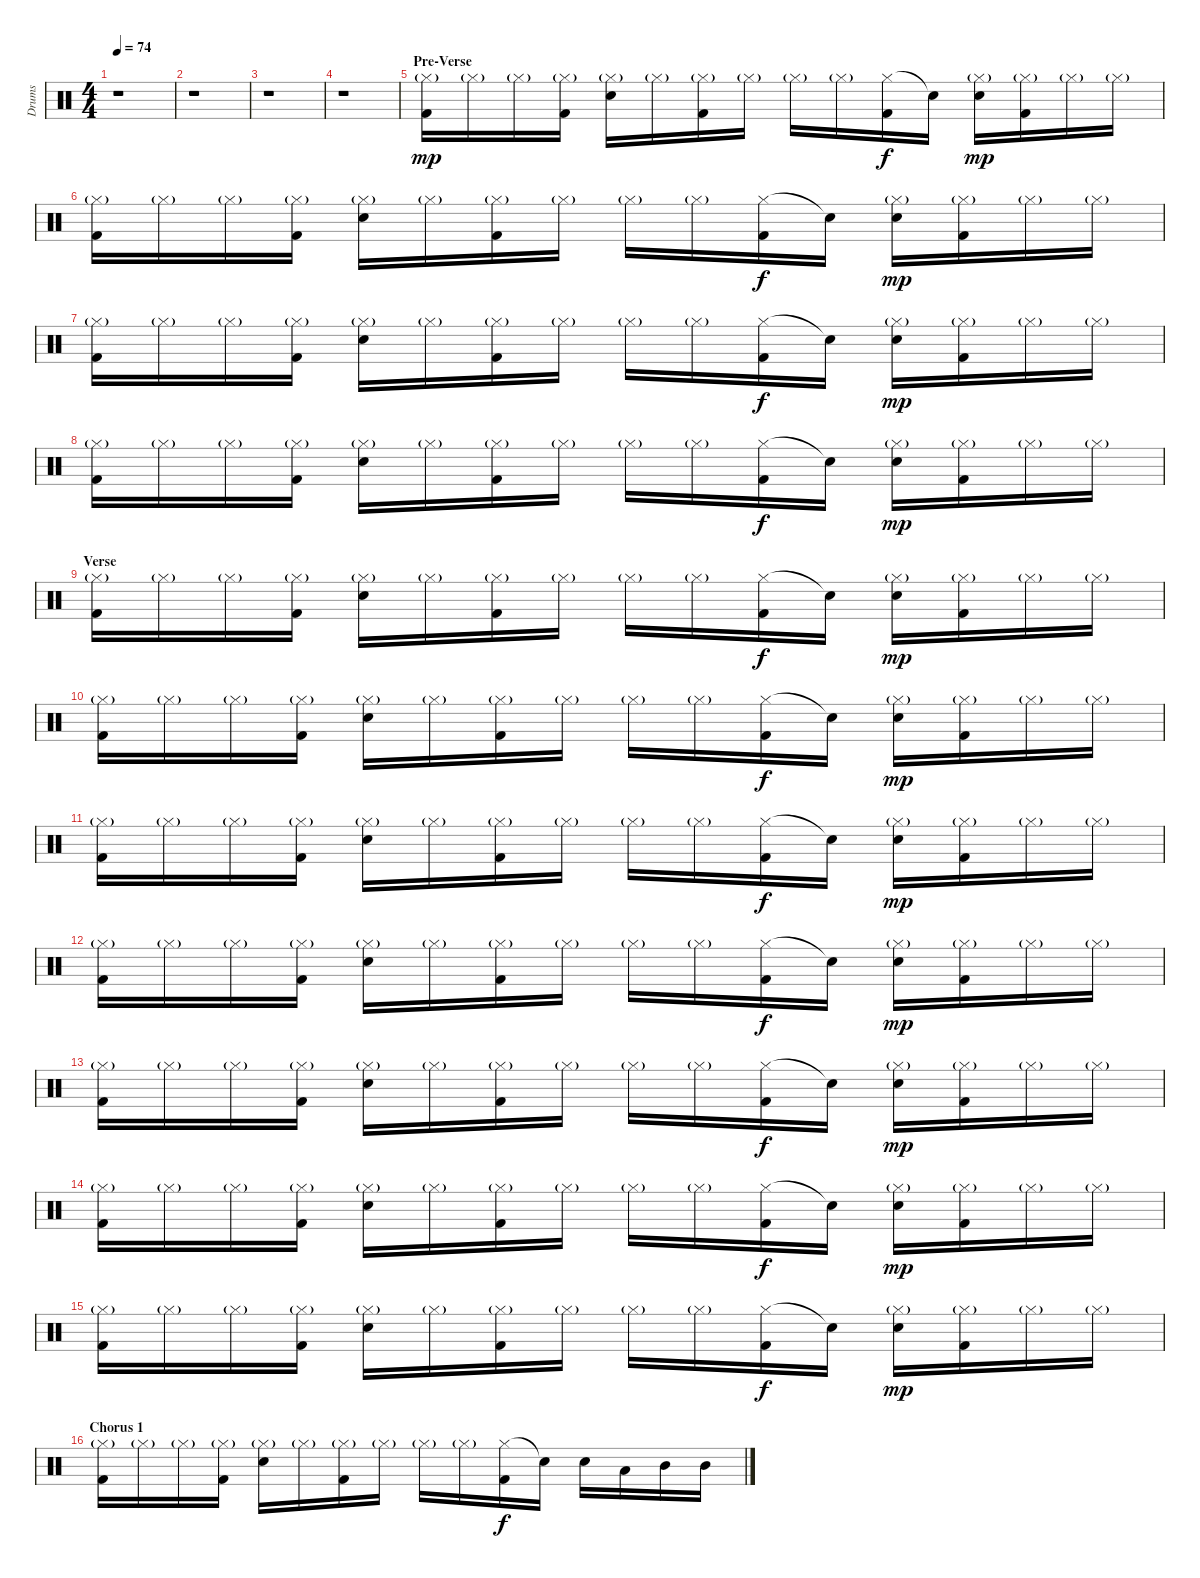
\track ("Drums" "Drums") {instrument percussion}
\staff {score}
\articulation defaults
\ts (4 4)
\tempo 74
\clef neutral
\ks c
r.1{dy mp} |
r.1 |
r.1 |
r.1 |
\section ("" "Pre-Verse")
("Hi-Hat (closed)"{g} "Kick (hit) 2").16 "Hi-Hat (closed)"{g}.16 "Hi-Hat (closed)"{g}.16 ("Hi-Hat (closed)"{g} "Kick (hit) 2").16 ("Hi-Hat (closed)"{g} "Electric Snare (hit)").16 "Hi-Hat (closed)"{g}.16 ("Hi-Hat (closed)"{g} "Kick (hit) 2").16 "Hi-Hat (closed)"{g}.16 "Hi-Hat (closed)"{g}.16 "Hi-Hat (closed)"{g}.16 ("Hi-Hat (closed)" "Kick (hit) 2").16{dy f} "Snare (hit)"{t}.16 ("Hi-Hat (closed)"{g} "Electric Snare (hit)").16{dy mp} ("Hi-Hat (closed)"{g} "Kick (hit) 2").16 "Hi-Hat (closed)"{g}.16 "Hi-Hat (closed)"{g}.16 |
("Hi-Hat (closed)"{g} "Kick (hit) 2").16 "Hi-Hat (closed)"{g}.16 "Hi-Hat (closed)"{g}.16 ("Hi-Hat (closed)"{g} "Kick (hit) 2").16 ("Hi-Hat (closed)"{g} "Electric Snare (hit)").16 "Hi-Hat (closed)"{g}.16 ("Hi-Hat (closed)"{g} "Kick (hit) 2").16 "Hi-Hat (closed)"{g}.16 "Hi-Hat (closed)"{g}.16 "Hi-Hat (closed)"{g}.16 ("Hi-Hat (closed)" "Kick (hit) 2").16{dy f} "Snare (hit)"{t}.16 ("Hi-Hat (closed)"{g} "Electric Snare (hit)").16{dy mp} ("Hi-Hat (closed)"{g} "Kick (hit) 2").16 "Hi-Hat (closed)"{g}.16 "Hi-Hat (closed)"{g}.16 |
("Hi-Hat (closed)"{g} "Kick (hit) 2").16 "Hi-Hat (closed)"{g}.16 "Hi-Hat (closed)"{g}.16 ("Hi-Hat (closed)"{g} "Kick (hit) 2").16 ("Hi-Hat (closed)"{g} "Electric Snare (hit)").16 "Hi-Hat (closed)"{g}.16 ("Hi-Hat (closed)"{g} "Kick (hit) 2").16 "Hi-Hat (closed)"{g}.16 "Hi-Hat (closed)"{g}.16 "Hi-Hat (closed)"{g}.16 ("Hi-Hat (closed)" "Kick (hit) 2").16{dy f} "Snare (hit)"{t}.16 ("Hi-Hat (closed)"{g} "Electric Snare (hit)").16{dy mp} ("Hi-Hat (closed)"{g} "Kick (hit) 2").16 "Hi-Hat (closed)"{g}.16 "Hi-Hat (closed)"{g}.16 |
("Hi-Hat (closed)"{g} "Kick (hit) 2").16 "Hi-Hat (closed)"{g}.16 "Hi-Hat (closed)"{g}.16 ("Hi-Hat (closed)"{g} "Kick (hit) 2").16 ("Hi-Hat (closed)"{g} "Electric Snare (hit)").16 "Hi-Hat (closed)"{g}.16 ("Hi-Hat (closed)"{g} "Kick (hit) 2").16 "Hi-Hat (closed)"{g}.16 "Hi-Hat (closed)"{g}.16 "Hi-Hat (closed)"{g}.16 ("Hi-Hat (closed)" "Kick (hit) 2").16{dy f} "Snare (hit)"{t}.16 ("Hi-Hat (closed)"{g} "Electric Snare (hit)").16{dy mp} ("Hi-Hat (closed)"{g} "Kick (hit) 2").16 "Hi-Hat (closed)"{g}.16 "Hi-Hat (closed)"{g}.16 |
\section ("" "Verse")
("Hi-Hat (closed)"{g} "Kick (hit) 2").16 "Hi-Hat (closed)"{g}.16 "Hi-Hat (closed)"{g}.16 ("Hi-Hat (closed)"{g} "Kick (hit) 2").16 ("Hi-Hat (closed)"{g} "Electric Snare (hit)").16 "Hi-Hat (closed)"{g}.16 ("Hi-Hat (closed)"{g} "Kick (hit) 2").16 "Hi-Hat (closed)"{g}.16 "Hi-Hat (closed)"{g}.16 "Hi-Hat (closed)"{g}.16 ("Hi-Hat (closed)" "Kick (hit) 2").16{dy f} "Snare (hit)"{t}.16 ("Hi-Hat (closed)"{g} "Electric Snare (hit)").16{dy mp} ("Hi-Hat (closed)"{g} "Kick (hit) 2").16 "Hi-Hat (closed)"{g}.16 "Hi-Hat (closed)"{g}.16 |
("Hi-Hat (closed)"{g} "Kick (hit) 2").16 "Hi-Hat (closed)"{g}.16 "Hi-Hat (closed)"{g}.16 ("Hi-Hat (closed)"{g} "Kick (hit) 2").16 ("Hi-Hat (closed)"{g} "Electric Snare (hit)").16 "Hi-Hat (closed)"{g}.16 ("Hi-Hat (closed)"{g} "Kick (hit) 2").16 "Hi-Hat (closed)"{g}.16 "Hi-Hat (closed)"{g}.16 "Hi-Hat (closed)"{g}.16 ("Hi-Hat (closed)" "Kick (hit) 2").16{dy f} "Snare (hit)"{t}.16 ("Hi-Hat (closed)"{g} "Electric Snare (hit)").16{dy mp} ("Hi-Hat (closed)"{g} "Kick (hit) 2").16 "Hi-Hat (closed)"{g}.16 "Hi-Hat (closed)"{g}.16 |
("Hi-Hat (closed)"{g} "Kick (hit) 2").16 "Hi-Hat (closed)"{g}.16 "Hi-Hat (closed)"{g}.16 ("Hi-Hat (closed)"{g} "Kick (hit) 2").16 ("Hi-Hat (closed)"{g} "Electric Snare (hit)").16 "Hi-Hat (closed)"{g}.16 ("Hi-Hat (closed)"{g} "Kick (hit) 2").16 "Hi-Hat (closed)"{g}.16 "Hi-Hat (closed)"{g}.16 "Hi-Hat (closed)"{g}.16 ("Hi-Hat (closed)" "Kick (hit) 2").16{dy f} "Snare (hit)"{t}.16 ("Hi-Hat (closed)"{g} "Electric Snare (hit)").16{dy mp} ("Hi-Hat (closed)"{g} "Kick (hit) 2").16 "Hi-Hat (closed)"{g}.16 "Hi-Hat (closed)"{g}.16 |
("Hi-Hat (closed)"{g} "Kick (hit) 2").16 "Hi-Hat (closed)"{g}.16 "Hi-Hat (closed)"{g}.16 ("Hi-Hat (closed)"{g} "Kick (hit) 2").16 ("Hi-Hat (closed)"{g} "Electric Snare (hit)").16 "Hi-Hat (closed)"{g}.16 ("Hi-Hat (closed)"{g} "Kick (hit) 2").16 "Hi-Hat (closed)"{g}.16 "Hi-Hat (closed)"{g}.16 "Hi-Hat (closed)"{g}.16 ("Hi-Hat (closed)" "Kick (hit) 2").16{dy f} "Snare (hit)"{t}.16 ("Hi-Hat (closed)"{g} "Electric Snare (hit)").16{dy mp} ("Hi-Hat (closed)"{g} "Kick (hit) 2").16 "Hi-Hat (closed)"{g}.16 "Hi-Hat (closed)"{g}.16 |
("Hi-Hat (closed)"{g} "Kick (hit) 2").16 "Hi-Hat (closed)"{g}.16 "Hi-Hat (closed)"{g}.16 ("Hi-Hat (closed)"{g} "Kick (hit) 2").16 ("Hi-Hat (closed)"{g} "Electric Snare (hit)").16 "Hi-Hat (closed)"{g}.16 ("Hi-Hat (closed)"{g} "Kick (hit) 2").16 "Hi-Hat (closed)"{g}.16 "Hi-Hat (closed)"{g}.16 "Hi-Hat (closed)"{g}.16 ("Hi-Hat (closed)" "Kick (hit) 2").16{dy f} "Snare (hit)"{t}.16 ("Hi-Hat (closed)"{g} "Electric Snare (hit)").16{dy mp} ("Hi-Hat (closed)"{g} "Kick (hit) 2").16 "Hi-Hat (closed)"{g}.16 "Hi-Hat (closed)"{g}.16 |
("Hi-Hat (closed)"{g} "Kick (hit) 2").16 "Hi-Hat (closed)"{g}.16 "Hi-Hat (closed)"{g}.16 ("Hi-Hat (closed)"{g} "Kick (hit) 2").16 ("Hi-Hat (closed)"{g} "Electric Snare (hit)").16 "Hi-Hat (closed)"{g}.16 ("Hi-Hat (closed)"{g} "Kick (hit) 2").16 "Hi-Hat (closed)"{g}.16 "Hi-Hat (closed)"{g}.16 "Hi-Hat (closed)"{g}.16 ("Hi-Hat (closed)" "Kick (hit) 2").16{dy f} "Snare (hit)"{t}.16 ("Hi-Hat (closed)"{g} "Electric Snare (hit)").16{dy mp} ("Hi-Hat (closed)"{g} "Kick (hit) 2").16 "Hi-Hat (closed)"{g}.16 "Hi-Hat (closed)"{g}.16 |
("Hi-Hat (closed)"{g} "Kick (hit) 2").16 "Hi-Hat (closed)"{g}.16 "Hi-Hat (closed)"{g}.16 ("Hi-Hat (closed)"{g} "Kick (hit) 2").16 ("Hi-Hat (closed)"{g} "Electric Snare (hit)").16 "Hi-Hat (closed)"{g}.16 ("Hi-Hat (closed)"{g} "Kick (hit) 2").16 "Hi-Hat (closed)"{g}.16 "Hi-Hat (closed)"{g}.16 "Hi-Hat (closed)"{g}.16 ("Hi-Hat (closed)" "Kick (hit) 2").16{dy f} "Snare (hit)"{t}.16 ("Hi-Hat (closed)"{g} "Electric Snare (hit)").16{dy mp} ("Hi-Hat (closed)"{g} "Kick (hit) 2").16 "Hi-Hat (closed)"{g}.16 "Hi-Hat (closed)"{g}.16 |
\section ("" "Chorus 1")
("Hi-Hat (closed)"{g} "Kick (hit) 2").16 "Hi-Hat (closed)"{g}.16 "Hi-Hat (closed)"{g}.16 ("Hi-Hat (closed)"{g} "Kick (hit) 2").16 ("Hi-Hat (closed)"{g} "Electric Snare (hit)").16 "Hi-Hat (closed)"{g}.16 ("Hi-Hat (closed)"{g} "Kick (hit) 2").16 "Hi-Hat (closed)"{g}.16 "Hi-Hat (closed)"{g}.16 "Hi-Hat (closed)"{g}.16 ("Hi-Hat (closed)" "Kick (hit) 2").16{dy f} "Snare (hit)"{t}.16 "Electric Snare (hit)".16 "Low Tom (hit)".16 "Mid Tom (hit)".16 "Mid Tom (hit)".16
